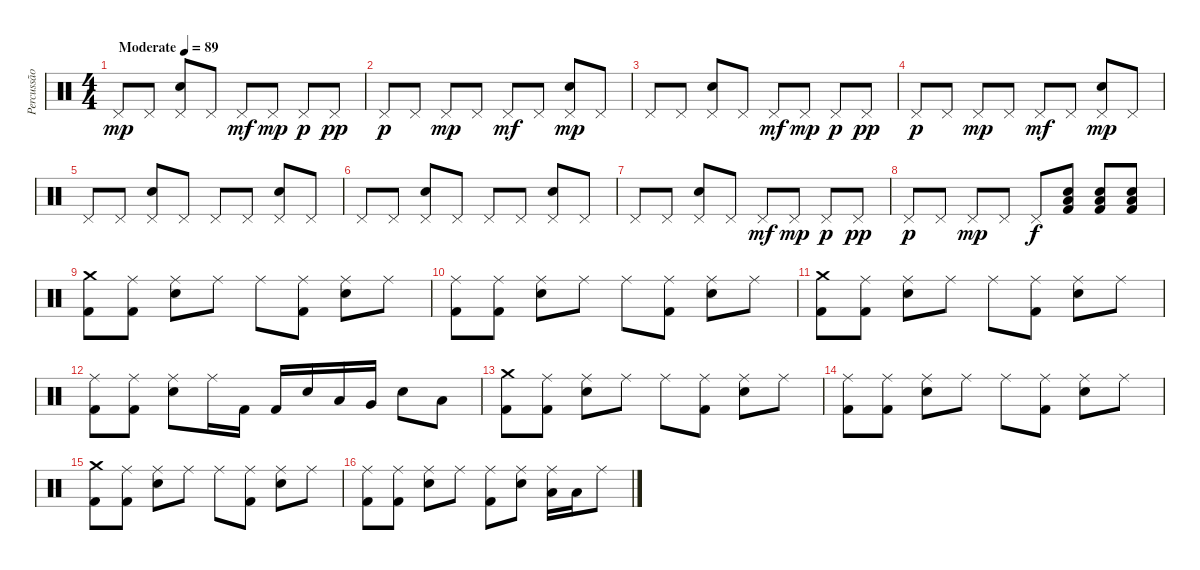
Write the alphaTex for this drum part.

\track ("Percussão" "Percussão") {instrument percussion}
\staff {score}
\articulation defaults
\ts (4 4)
\tempo (89 "Moderate")
\clef neutral
\ks c "Pedal Hi-Hat (hit)".8{dy mp} "Pedal Hi-Hat (hit)".8
("Pedal Hi-Hat (hit)" "Electric Snare (hit)").8 "Pedal Hi-Hat (hit)".8 "Pedal Hi-Hat (hit)".8{dy mf} "Pedal Hi-Hat (hit)".8{dy mp} "Pedal Hi-Hat (hit)".8{dy p} "Pedal Hi-Hat (hit)".8{dy pp} |
"Pedal Hi-Hat (hit)".8{dy p} "Pedal Hi-Hat (hit)".8 "Pedal Hi-Hat (hit)".8{dy mp} "Pedal Hi-Hat (hit)".8 "Pedal Hi-Hat (hit)".8{dy mf} "Pedal Hi-Hat (hit)".8 ("Pedal Hi-Hat (hit)" "Electric Snare (hit)").8{dy mp} "Pedal Hi-Hat (hit)".8 |
"Pedal Hi-Hat (hit)".8 "Pedal Hi-Hat (hit)".8 ("Pedal Hi-Hat (hit)" "Electric Snare (hit)").8 "Pedal Hi-Hat (hit)".8 "Pedal Hi-Hat (hit)".8{dy mf} "Pedal Hi-Hat (hit)".8{dy mp} "Pedal Hi-Hat (hit)".8{dy p} "Pedal Hi-Hat (hit)".8{dy pp} |
"Pedal Hi-Hat (hit)".8{dy p} "Pedal Hi-Hat (hit)".8 "Pedal Hi-Hat (hit)".8{dy mp} "Pedal Hi-Hat (hit)".8 "Pedal Hi-Hat (hit)".8{dy mf} "Pedal Hi-Hat (hit)".8 ("Pedal Hi-Hat (hit)" "Electric Snare (hit)").8{dy mp} "Pedal Hi-Hat (hit)".8 |
"Pedal Hi-Hat (hit)".8 "Pedal Hi-Hat (hit)".8 ("Pedal Hi-Hat (hit)" "Electric Snare (hit)").8 "Pedal Hi-Hat (hit)".8 "Pedal Hi-Hat (hit)".8 "Pedal Hi-Hat (hit)".8 ("Pedal Hi-Hat (hit)" "Electric Snare (hit)").8 "Pedal Hi-Hat (hit)".8 |
"Pedal Hi-Hat (hit)".8 "Pedal Hi-Hat (hit)".8 ("Pedal Hi-Hat (hit)" "Electric Snare (hit)").8 "Pedal Hi-Hat (hit)".8 "Pedal Hi-Hat (hit)".8 "Pedal Hi-Hat (hit)".8 ("Pedal Hi-Hat (hit)" "Electric Snare (hit)").8 "Pedal Hi-Hat (hit)".8 |
"Pedal Hi-Hat (hit)".8 "Pedal Hi-Hat (hit)".8 ("Pedal Hi-Hat (hit)" "Electric Snare (hit)").8 "Pedal Hi-Hat (hit)".8 "Pedal Hi-Hat (hit)".8{dy mf} "Pedal Hi-Hat (hit)".8{dy mp} "Pedal Hi-Hat (hit)".8{dy p} "Pedal Hi-Hat (hit)".8{dy pp} |
"Pedal Hi-Hat (hit)".8{dy p} "Pedal Hi-Hat (hit)".8 "Pedal Hi-Hat (hit)".8{dy mp} "Pedal Hi-Hat (hit)".8 "Pedal Hi-Hat (hit)".8{dy f} ("Low Tom (hit)" "Electric Snare (hit)" "Kick (hit) 2").8 ("Low Tom (hit)" "Electric Snare (hit)" "Kick (hit) 2").8 ("Low Tom (hit)" "Electric Snare (hit)" "Kick (hit) 2").8 |
("Crash medium (hit)" "Kick (hit) 2").8 ("Ride (middle)" "Kick (hit) 2").8 ("Ride (middle)" "Electric Snare (hit)").8 "Ride (middle)".8 "Ride (middle)".8 ("Ride (middle)" "Kick (hit) 2").8 ("Ride (middle)" "Electric Snare (hit)").8 "Ride (middle)".8 |
("Ride (middle)" "Kick (hit) 2").8 ("Ride (middle)" "Kick (hit) 2").8 ("Ride (middle)" "Electric Snare (hit)").8 "Ride (middle)".8 "Ride (middle)".8 ("Ride (middle)" "Kick (hit) 2").8 ("Ride (middle)" "Electric Snare (hit)").8 "Ride (middle)".8 |
("Crash medium (hit)" "Kick (hit) 2").8 ("Ride (middle)" "Kick (hit) 2").8 ("Ride (middle)" "Electric Snare (hit)").8 "Ride (middle)".8 "Ride (middle)".8 ("Ride (middle)" "Kick (hit) 2").8 ("Ride (middle)" "Electric Snare (hit)").8 "Ride (middle)".8 |
("Ride (middle)" "Kick (hit) 2").8 ("Ride (middle)" "Kick (hit) 2").8 ("Ride (middle)" "Electric Snare (hit)").8 "Ride (middle)".16 "Kick (hit) 2".16 "Kick (hit) 2".16 "Electric Snare (hit)".16 "Low Tom (hit)".16 "Very Low Tom (hit)".16 "Electric Snare (hit)".8 "Low Tom (hit)".8 |
("Crash medium (hit)" "Kick (hit) 2").8 ("Ride (middle)" "Kick (hit) 2").8 ("Ride (middle)" "Electric Snare (hit)").8 "Ride (middle)".8 "Ride (middle)".8 ("Ride (middle)" "Kick (hit) 2").8 ("Ride (middle)" "Electric Snare (hit)").8 "Ride (middle)".8 |
("Ride (middle)" "Kick (hit) 2").8 ("Ride (middle)" "Kick (hit) 2").8 ("Ride (middle)" "Electric Snare (hit)").8 "Ride (middle)".8 "Ride (middle)".8 ("Ride (middle)" "Kick (hit) 2").8 ("Ride (middle)" "Electric Snare (hit)").8 "Ride (middle)".8 |
("Crash medium (hit)" "Kick (hit) 2").8 ("Ride (middle)" "Kick (hit) 2").8 ("Ride (middle)" "Electric Snare (hit)").8 "Ride (middle)".8 "Ride (middle)".8 ("Ride (middle)" "Kick (hit) 2").8 ("Ride (middle)" "Electric Snare (hit)").8 "Ride (middle)".8 |
("Ride (middle)" "Kick (hit) 2").8 ("Ride (middle)" "Kick (hit) 2").8 ("Ride (middle)" "Electric Snare (hit)").8 "Ride (middle)".8 ("Ride (middle)" "Kick (hit) 2").8 ("Ride (middle)" "Electric Snare (hit)").8 ("Ride (middle)" "Low Tom (hit)").16 "Low Tom (hit)".16 "Ride (middle)".8
